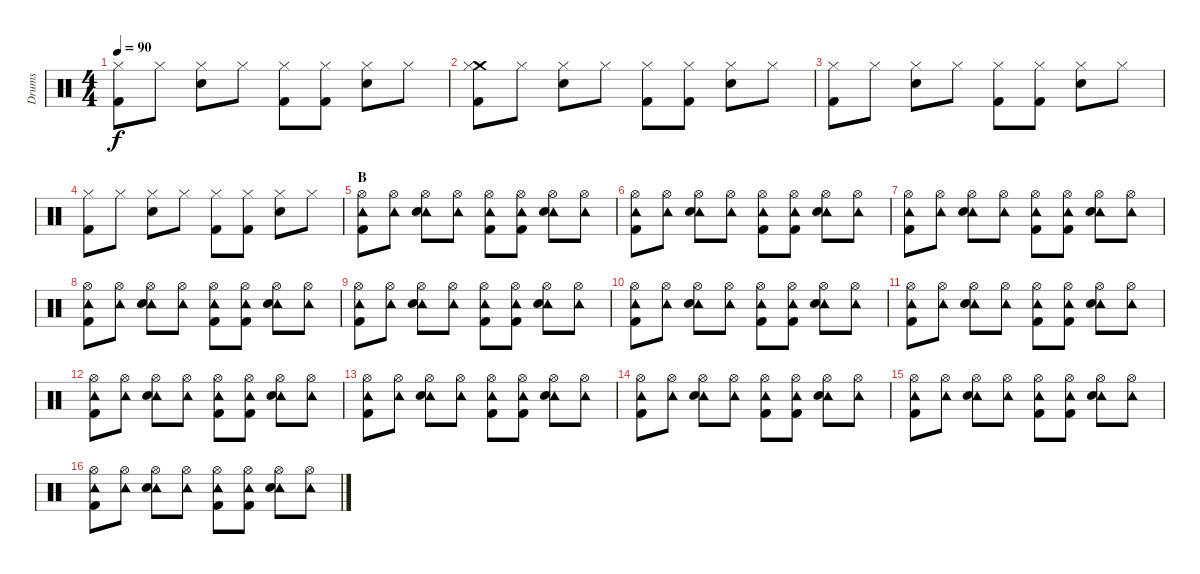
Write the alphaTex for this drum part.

\track ("Drums" "Drums") {instrument percussion}
\staff {score}
\articulation defaults
\ts (4 4)
\tempo 90
\clef neutral
\ks c
("Hi-Hat (closed)" "Kick (hit) 2").8{dy f} "Hi-Hat (closed)".8 ("Hi-Hat (closed)" "Snare (hit) 2").8 "Hi-Hat (closed)".8 ("Hi-Hat (closed)" "Kick (hit) 2").8 ("Hi-Hat (closed)" "Kick (hit) 2").8 ("Hi-Hat (closed)" "Snare (hit) 2").8 "Hi-Hat (closed)".8 |
("Crash medium (hit)" "Hi-Hat (closed)" "Kick (hit) 2").8 "Hi-Hat (closed)".8 ("Hi-Hat (closed)" "Snare (hit) 2").8 "Hi-Hat (closed)".8 ("Hi-Hat (closed)" "Kick (hit) 2").8 ("Hi-Hat (closed)" "Kick (hit) 2").8 ("Hi-Hat (closed)" "Snare (hit) 2").8 "Hi-Hat (closed)".8 |
("Hi-Hat (closed)" "Kick (hit) 2").8 "Hi-Hat (closed)".8 ("Hi-Hat (closed)" "Snare (hit) 2").8 "Hi-Hat (closed)".8 ("Hi-Hat (closed)" "Kick (hit) 2").8 ("Hi-Hat (closed)" "Kick (hit) 2").8 ("Hi-Hat (closed)" "Snare (hit) 2").8 "Hi-Hat (closed)".8 |
("Hi-Hat (closed)" "Kick (hit) 2").8 "Hi-Hat (closed)".8 ("Hi-Hat (closed)" "Snare (hit) 2").8 "Hi-Hat (closed)".8 ("Hi-Hat (closed)" "Kick (hit) 2").8 ("Hi-Hat (closed)" "Kick (hit) 2").8 ("Hi-Hat (closed)" "Snare (hit) 2").8 "Hi-Hat (closed)".8 |
\section ("" "B")
("Tambourine (hit)" "Hi-Hat (open)" "Kick (hit) 2").8 ("Tambourine (hit)" "Hi-Hat (open)").8 ("Tambourine (hit)" "Hi-Hat (open)" "Snare (hit) 2").8 ("Tambourine (hit)" "Hi-Hat (open)").8 ("Tambourine (hit)" "Hi-Hat (open)" "Kick (hit) 2").8 ("Tambourine (hit)" "Hi-Hat (open)" "Kick (hit) 2").8 ("Tambourine (hit)" "Hi-Hat (open)" "Snare (hit) 2").8 ("Tambourine (hit)" "Hi-Hat (open)").8 |
("Tambourine (hit)" "Hi-Hat (open)" "Kick (hit) 2").8 ("Tambourine (hit)" "Hi-Hat (open)").8 ("Tambourine (hit)" "Hi-Hat (open)" "Snare (hit) 2").8 ("Tambourine (hit)" "Hi-Hat (open)").8 ("Tambourine (hit)" "Hi-Hat (open)" "Kick (hit) 2").8 ("Tambourine (hit)" "Hi-Hat (open)" "Kick (hit) 2").8 ("Tambourine (hit)" "Hi-Hat (open)" "Snare (hit) 2").8 ("Tambourine (hit)" "Hi-Hat (open)").8 |
("Tambourine (hit)" "Hi-Hat (open)" "Kick (hit) 2").8 ("Tambourine (hit)" "Hi-Hat (open)").8 ("Tambourine (hit)" "Hi-Hat (open)" "Snare (hit) 2").8 ("Tambourine (hit)" "Hi-Hat (open)").8 ("Tambourine (hit)" "Hi-Hat (open)" "Kick (hit) 2").8 ("Tambourine (hit)" "Hi-Hat (open)" "Kick (hit) 2").8 ("Tambourine (hit)" "Hi-Hat (open)" "Snare (hit) 2").8 ("Tambourine (hit)" "Hi-Hat (open)").8 |
("Tambourine (hit)" "Hi-Hat (open)" "Kick (hit) 2").8 ("Tambourine (hit)" "Hi-Hat (open)").8 ("Tambourine (hit)" "Hi-Hat (open)" "Snare (hit) 2").8 ("Tambourine (hit)" "Hi-Hat (open)").8 ("Tambourine (hit)" "Hi-Hat (open)" "Kick (hit) 2").8 ("Tambourine (hit)" "Hi-Hat (open)" "Kick (hit) 2").8 ("Tambourine (hit)" "Hi-Hat (open)" "Snare (hit) 2").8 ("Tambourine (hit)" "Hi-Hat (open)").8 |
("Tambourine (hit)" "Hi-Hat (open)" "Kick (hit) 2").8 ("Tambourine (hit)" "Hi-Hat (open)").8 ("Tambourine (hit)" "Hi-Hat (open)" "Snare (hit) 2").8 ("Tambourine (hit)" "Hi-Hat (open)").8 ("Tambourine (hit)" "Hi-Hat (open)" "Kick (hit) 2").8 ("Tambourine (hit)" "Hi-Hat (open)" "Kick (hit) 2").8 ("Tambourine (hit)" "Hi-Hat (open)" "Snare (hit) 2").8 ("Tambourine (hit)" "Hi-Hat (open)").8 |
("Tambourine (hit)" "Hi-Hat (open)" "Kick (hit) 2").8 ("Tambourine (hit)" "Hi-Hat (open)").8 ("Tambourine (hit)" "Hi-Hat (open)" "Snare (hit) 2").8 ("Tambourine (hit)" "Hi-Hat (open)").8 ("Tambourine (hit)" "Hi-Hat (open)" "Kick (hit) 2").8 ("Tambourine (hit)" "Hi-Hat (open)" "Kick (hit) 2").8 ("Tambourine (hit)" "Hi-Hat (open)" "Snare (hit) 2").8 ("Tambourine (hit)" "Hi-Hat (open)").8 |
("Tambourine (hit)" "Hi-Hat (open)" "Kick (hit) 2").8 ("Tambourine (hit)" "Hi-Hat (open)").8 ("Tambourine (hit)" "Hi-Hat (open)" "Snare (hit) 2").8 ("Tambourine (hit)" "Hi-Hat (open)").8 ("Tambourine (hit)" "Hi-Hat (open)" "Kick (hit) 2").8 ("Tambourine (hit)" "Hi-Hat (open)" "Kick (hit) 2").8 ("Tambourine (hit)" "Hi-Hat (open)" "Snare (hit) 2").8 ("Tambourine (hit)" "Hi-Hat (open)").8 |
("Tambourine (hit)" "Hi-Hat (open)" "Kick (hit) 2").8 ("Tambourine (hit)" "Hi-Hat (open)").8 ("Tambourine (hit)" "Hi-Hat (open)" "Snare (hit) 2").8 ("Tambourine (hit)" "Hi-Hat (open)").8 ("Tambourine (hit)" "Hi-Hat (open)" "Kick (hit) 2").8 ("Tambourine (hit)" "Hi-Hat (open)" "Kick (hit) 2").8 ("Tambourine (hit)" "Hi-Hat (open)" "Snare (hit) 2").8 ("Tambourine (hit)" "Hi-Hat (open)").8 |
("Tambourine (hit)" "Hi-Hat (open)" "Kick (hit) 2").8 ("Tambourine (hit)" "Hi-Hat (open)").8 ("Tambourine (hit)" "Hi-Hat (open)" "Snare (hit) 2").8 ("Tambourine (hit)" "Hi-Hat (open)").8 ("Tambourine (hit)" "Hi-Hat (open)" "Kick (hit) 2").8 ("Tambourine (hit)" "Hi-Hat (open)" "Kick (hit) 2").8 ("Tambourine (hit)" "Hi-Hat (open)" "Snare (hit) 2").8 ("Tambourine (hit)" "Hi-Hat (open)").8 |
("Tambourine (hit)" "Hi-Hat (open)" "Kick (hit) 2").8 ("Tambourine (hit)" "Hi-Hat (open)").8 ("Tambourine (hit)" "Hi-Hat (open)" "Snare (hit) 2").8 ("Tambourine (hit)" "Hi-Hat (open)").8 ("Tambourine (hit)" "Hi-Hat (open)" "Kick (hit) 2").8 ("Tambourine (hit)" "Hi-Hat (open)" "Kick (hit) 2").8 ("Tambourine (hit)" "Hi-Hat (open)" "Snare (hit) 2").8 ("Tambourine (hit)" "Hi-Hat (open)").8 |
("Tambourine (hit)" "Hi-Hat (open)" "Kick (hit) 2").8 ("Tambourine (hit)" "Hi-Hat (open)").8 ("Tambourine (hit)" "Hi-Hat (open)" "Snare (hit) 2").8 ("Tambourine (hit)" "Hi-Hat (open)").8 ("Tambourine (hit)" "Hi-Hat (open)" "Kick (hit) 2").8 ("Tambourine (hit)" "Hi-Hat (open)" "Kick (hit) 2").8 ("Tambourine (hit)" "Hi-Hat (open)" "Snare (hit) 2").8 ("Tambourine (hit)" "Hi-Hat (open)").8 |
("Tambourine (hit)" "Hi-Hat (open)" "Kick (hit) 2").8 ("Tambourine (hit)" "Hi-Hat (open)").8 ("Tambourine (hit)" "Hi-Hat (open)" "Snare (hit) 2").8 ("Tambourine (hit)" "Hi-Hat (open)").8 ("Tambourine (hit)" "Hi-Hat (open)" "Kick (hit) 2").8 ("Tambourine (hit)" "Hi-Hat (open)" "Kick (hit) 2").8 ("Tambourine (hit)" "Hi-Hat (open)" "Snare (hit) 2").8 ("Tambourine (hit)" "Hi-Hat (open)").8
